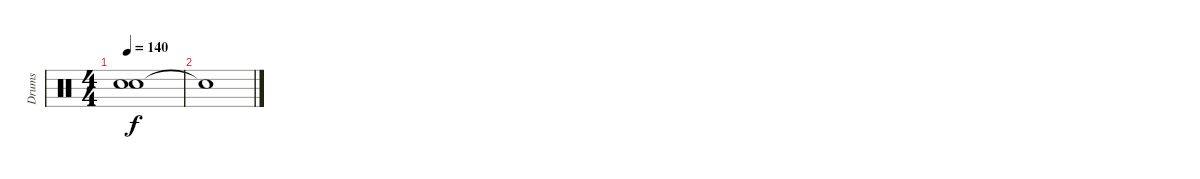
\track ("Drums" "Drums") {instrument percussion}
\staff {score}
\articulation defaults
\ts (4 4)
\tempo 140
\clef neutral
\ks c
("Snare (hit)"{t} "Snare (hit)"{t}).1{dy f} |
"Snare (hit)"{t}.1
